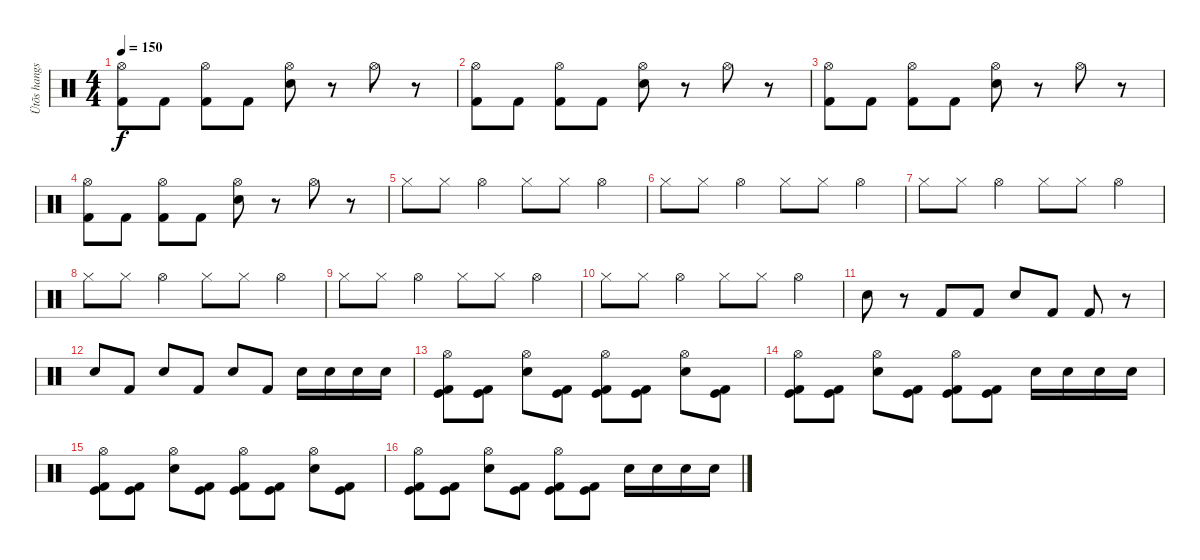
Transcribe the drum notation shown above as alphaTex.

\track ("Ütõs hangszer" "Ütõs hangs") {instrument percussion}
\staff {score}
\articulation defaults
\ts (4 4)
\tempo 150
\clef neutral
\ks c
("Hi-Hat (open)" "Kick (hit) 2").8{dy f} "Kick (hit) 2".8 ("Hi-Hat (open)" "Kick (hit) 2").8 "Kick (hit) 2".8 ("Hi-Hat (open)" "Electric Snare (hit)").8 r.8 "Hi-Hat (open)".8 r.8 |
("Hi-Hat (open)" "Kick (hit) 2").8 "Kick (hit) 2".8 ("Hi-Hat (open)" "Kick (hit) 2").8 "Kick (hit) 2".8 ("Hi-Hat (open)" "Electric Snare (hit)").8 r.8 "Hi-Hat (open)".8 r.8 |
("Hi-Hat (open)" "Kick (hit) 2").8 "Kick (hit) 2".8 ("Hi-Hat (open)" "Kick (hit) 2").8 "Kick (hit) 2".8 ("Hi-Hat (open)" "Electric Snare (hit)").8 r.8 "Hi-Hat (open)".8 r.8 |
("Hi-Hat (open)" "Kick (hit) 2").8 "Kick (hit) 2".8 ("Hi-Hat (open)" "Kick (hit) 2").8 "Kick (hit) 2".8 ("Hi-Hat (open)" "Electric Snare (hit)").8 r.8 "Hi-Hat (open)".8 r.8 |
"Hi-Hat (closed)".8 "Hi-Hat (closed)".8 "Hi-Hat (open)".4 "Hi-Hat (closed)".8 "Hi-Hat (closed)".8 "Hi-Hat (open)".4 |
"Hi-Hat (closed)".8 "Hi-Hat (closed)".8 "Hi-Hat (open)".4 "Hi-Hat (closed)".8 "Hi-Hat (closed)".8 "Hi-Hat (open)".4 |
"Hi-Hat (closed)".8 "Hi-Hat (closed)".8 "Hi-Hat (open)".4 "Hi-Hat (closed)".8 "Hi-Hat (closed)".8 "Hi-Hat (open)".4 |
"Hi-Hat (closed)".8 "Hi-Hat (closed)".8 "Hi-Hat (open)".4 "Hi-Hat (closed)".8 "Hi-Hat (closed)".8 "Hi-Hat (open)".4 |
"Hi-Hat (closed)".8 "Hi-Hat (closed)".8 "Hi-Hat (open)".4 "Hi-Hat (closed)".8 "Hi-Hat (closed)".8 "Hi-Hat (open)".4 |
"Hi-Hat (closed)".8 "Hi-Hat (closed)".8 "Hi-Hat (open)".4 "Hi-Hat (closed)".8 "Hi-Hat (closed)".8 "Hi-Hat (open)".4 |
"Electric Snare (hit)".8 r.8 "Kick (hit) 2".8 "Kick (hit) 2".8 "Electric Snare (hit)".8 "Kick (hit) 2".8 "Kick (hit) 2".8 r.8 |
"Electric Snare (hit)".8 "Kick (hit) 2".8 "Electric Snare (hit)".8 "Kick (hit) 2".8 "Electric Snare (hit)".8 "Kick (hit) 2".8 "Electric Snare (hit)".16 "Electric Snare (hit)".16 "Electric Snare (hit)".16 "Electric Snare (hit)".16 |
("Hi-Hat (open)" "Kick (hit)" "Kick (hit) 2").8 ("Kick (hit)" "Kick (hit) 2").8 ("Hi-Hat (open)" "Electric Snare (hit)").8 ("Kick (hit)" "Kick (hit) 2").8 ("Hi-Hat (open)" "Kick (hit)" "Kick (hit) 2").8 ("Kick (hit)" "Kick (hit) 2").8 ("Hi-Hat (open)" "Electric Snare (hit)").8 ("Kick (hit)" "Kick (hit) 2").8 |
("Hi-Hat (open)" "Kick (hit)" "Kick (hit) 2").8 ("Kick (hit)" "Kick (hit) 2").8 ("Hi-Hat (open)" "Electric Snare (hit)").8 ("Kick (hit)" "Kick (hit) 2").8 ("Hi-Hat (open)" "Kick (hit)" "Kick (hit) 2").8 ("Kick (hit)" "Kick (hit) 2").8 "Electric Snare (hit)".16 "Electric Snare (hit)".16 "Electric Snare (hit)".16 "Electric Snare (hit)".16 |
("Hi-Hat (open)" "Kick (hit)" "Kick (hit) 2").8 ("Kick (hit)" "Kick (hit) 2").8 ("Hi-Hat (open)" "Electric Snare (hit)").8 ("Kick (hit)" "Kick (hit) 2").8 ("Hi-Hat (open)" "Kick (hit)" "Kick (hit) 2").8 ("Kick (hit)" "Kick (hit) 2").8 ("Hi-Hat (open)" "Electric Snare (hit)").8 ("Kick (hit)" "Kick (hit) 2").8 |
("Hi-Hat (open)" "Kick (hit)" "Kick (hit) 2").8 ("Kick (hit)" "Kick (hit) 2").8 ("Hi-Hat (open)" "Electric Snare (hit)").8 ("Kick (hit)" "Kick (hit) 2").8 ("Hi-Hat (open)" "Kick (hit)" "Kick (hit) 2").8 ("Kick (hit)" "Kick (hit) 2").8 "Electric Snare (hit)".16 "Electric Snare (hit)".16 "Electric Snare (hit)".16 "Electric Snare (hit)".16
